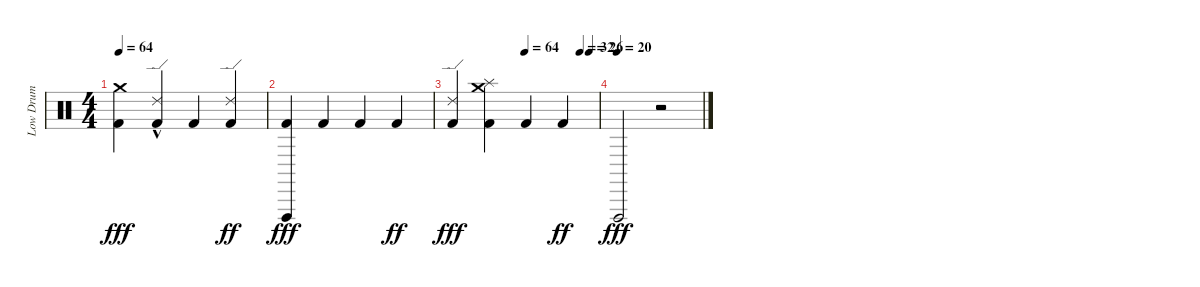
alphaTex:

\track ("Low Drum" "Low Drum") {instrument percussion}
\staff {score}
\articulation defaults
\ts (4 4)
\tempo 64
\clef neutral
\ks c
("Crash medium (hit)" "Kick (hit) 2").4{dy fff} ("Ride (edge) 2"{hac} "Kick (hit) 2").4 "Kick (hit) 2".4 ("Ride (edge) 2" "Kick (hit) 2").4{dy ff} |
("Kick (hit) 2" "Vibraslap (hit)").4{dy fff} "Kick (hit) 2".4 "Kick (hit) 2".4 "Kick (hit) 2".4{dy ff} |
\tempo (64 0.5)
\tempo (32 0.875)
\tempo (26 0.9375)
("Ride (edge) 2" "Kick (hit) 2").4{dy fff} ("Splash (hit)" "Crash medium (hit)" "Kick (hit) 2").4 "Kick (hit) 2".4 "Kick (hit) 2".4{dy ff} |
\tempo (20)
"Vibraslap (hit)".2{dy fff} r.2
